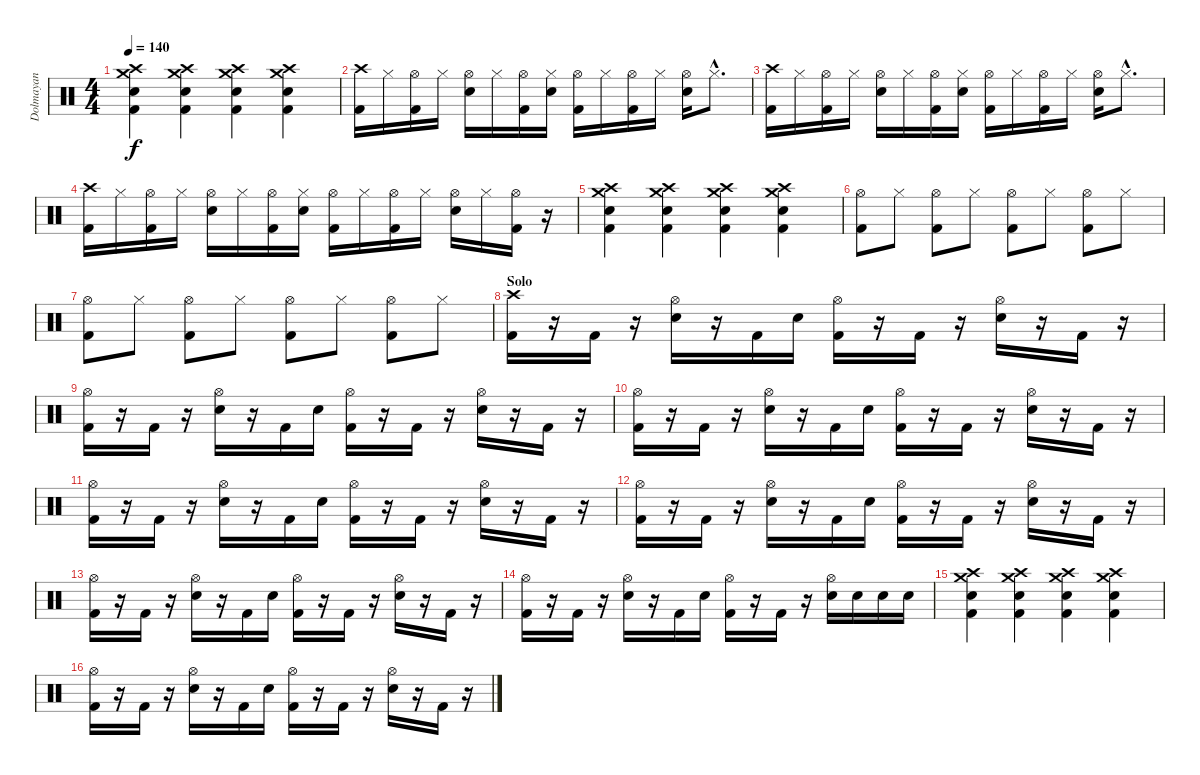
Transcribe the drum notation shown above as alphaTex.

\track ("Dolmayan" "Dolmayan") {instrument percussion}
\staff {score}
\articulation defaults
\ts (4 4)
\tempo 140
\clef neutral
\ks c
("Crash high (hit)" "Crash medium (hit)" "Electric Snare (hit)" "Kick (hit) 2").4{dy f} ("Crash high (hit)" "Crash medium (hit)" "Electric Snare (hit)" "Kick (hit) 2").4 ("Crash high (hit)" "Crash medium (hit)" "Electric Snare (hit)" "Kick (hit) 2").4 ("Crash high (hit)" "Crash medium (hit)" "Electric Snare (hit)" "Kick (hit) 2").4 |
("Crash high (hit)" "Kick (hit) 2").16 "Hi-Hat (closed)".16 ("Hi-Hat (open)" "Kick (hit) 2").16 "Hi-Hat (closed)".16 ("Hi-Hat (open)" "Electric Snare (hit)").16 "Hi-Hat (closed)".16 ("Hi-Hat (open)" "Kick (hit) 2").16 ("Hi-Hat (closed)" "Electric Snare (hit)").16 ("Hi-Hat (open)" "Kick (hit) 2").16 "Hi-Hat (closed)".16 ("Hi-Hat (open)" "Kick (hit) 2").16 "Hi-Hat (closed)".16 ("Hi-Hat (open)" "Electric Snare (hit)").16 "Hi-Hat (closed)"{hac}.8{d} |
("Crash high (hit)" "Kick (hit) 2").16 "Hi-Hat (closed)".16 ("Hi-Hat (open)" "Kick (hit) 2").16 "Hi-Hat (closed)".16 ("Hi-Hat (open)" "Electric Snare (hit)").16 "Hi-Hat (closed)".16 ("Hi-Hat (open)" "Kick (hit) 2").16 ("Hi-Hat (closed)" "Electric Snare (hit)").16 ("Hi-Hat (open)" "Kick (hit) 2").16 "Hi-Hat (closed)".16 ("Hi-Hat (open)" "Kick (hit) 2").16 "Hi-Hat (closed)".16 ("Hi-Hat (open)" "Electric Snare (hit)").16 "Hi-Hat (closed)"{hac}.8{d} |
("Crash high (hit)" "Kick (hit) 2").16 "Hi-Hat (closed)".16 ("Hi-Hat (open)" "Kick (hit) 2").16 "Hi-Hat (closed)".16 ("Hi-Hat (open)" "Electric Snare (hit)").16 "Hi-Hat (closed)".16 ("Hi-Hat (open)" "Kick (hit) 2").16 ("Hi-Hat (closed)" "Electric Snare (hit)").16 ("Hi-Hat (open)" "Kick (hit) 2").16 "Hi-Hat (closed)".16 ("Hi-Hat (open)" "Kick (hit) 2").16 "Hi-Hat (closed)".16 ("Hi-Hat (open)" "Electric Snare (hit)").16 "Hi-Hat (closed)".16 ("Hi-Hat (open)" "Kick (hit) 2").16 r.16 |
("Crash high (hit)" "Crash medium (hit)" "Electric Snare (hit)" "Kick (hit) 2").4 ("Crash high (hit)" "Crash medium (hit)" "Electric Snare (hit)" "Kick (hit) 2").4 ("Crash high (hit)" "Crash medium (hit)" "Electric Snare (hit)" "Kick (hit) 2").4 ("Crash high (hit)" "Crash medium (hit)" "Electric Snare (hit)" "Kick (hit) 2").4 |
("Hi-Hat (open)" "Kick (hit) 2").8 "Hi-Hat (closed)".8 ("Hi-Hat (open)" "Kick (hit) 2").8 "Hi-Hat (closed)".8 ("Hi-Hat (open)" "Kick (hit) 2").8 "Hi-Hat (closed)".8 ("Hi-Hat (open)" "Kick (hit) 2").8 "Hi-Hat (closed)".8 |
("Hi-Hat (open)" "Kick (hit) 2").8 "Hi-Hat (closed)".8 ("Hi-Hat (open)" "Kick (hit) 2").8 "Hi-Hat (closed)".8 ("Hi-Hat (open)" "Kick (hit) 2").8 "Hi-Hat (closed)".8 ("Hi-Hat (open)" "Kick (hit) 2").8 "Hi-Hat (closed)".8 |
\section ("" "Solo")
("Crash high (hit)" "Kick (hit) 2").16 r.16 "Kick (hit) 2".16 r.16 ("Hi-Hat (open)" "Electric Snare (hit)").16 r.16 "Kick (hit) 2".16 "Electric Snare (hit)".16 ("Hi-Hat (open)" "Kick (hit) 2").16 r.16 "Kick (hit) 2".16 r.16 ("Hi-Hat (open)" "Electric Snare (hit)").16 r.16 "Kick (hit) 2".16 r.16 |
("Hi-Hat (open)" "Kick (hit) 2").16 r.16 "Kick (hit) 2".16 r.16 ("Hi-Hat (open)" "Electric Snare (hit)").16 r.16 "Kick (hit) 2".16 "Electric Snare (hit)".16 ("Hi-Hat (open)" "Kick (hit) 2").16 r.16 "Kick (hit) 2".16 r.16 ("Hi-Hat (open)" "Electric Snare (hit)").16 r.16 "Kick (hit) 2".16 r.16 |
("Hi-Hat (open)" "Kick (hit) 2").16 r.16 "Kick (hit) 2".16 r.16 ("Hi-Hat (open)" "Electric Snare (hit)").16 r.16 "Kick (hit) 2".16 "Electric Snare (hit)".16 ("Hi-Hat (open)" "Kick (hit) 2").16 r.16 "Kick (hit) 2".16 r.16 ("Hi-Hat (open)" "Electric Snare (hit)").16 r.16 "Kick (hit) 2".16 r.16 |
("Hi-Hat (open)" "Kick (hit) 2").16 r.16 "Kick (hit) 2".16 r.16 ("Hi-Hat (open)" "Electric Snare (hit)").16 r.16 "Kick (hit) 2".16 "Electric Snare (hit)".16 ("Hi-Hat (open)" "Kick (hit) 2").16 r.16 "Kick (hit) 2".16 r.16 ("Hi-Hat (open)" "Electric Snare (hit)").16 r.16 "Kick (hit) 2".16 r.16 |
("Hi-Hat (open)" "Kick (hit) 2").16 r.16 "Kick (hit) 2".16 r.16 ("Hi-Hat (open)" "Electric Snare (hit)").16 r.16 "Kick (hit) 2".16 "Electric Snare (hit)".16 ("Hi-Hat (open)" "Kick (hit) 2").16 r.16 "Kick (hit) 2".16 r.16 ("Hi-Hat (open)" "Electric Snare (hit)").16 r.16 "Kick (hit) 2".16 r.16 |
("Hi-Hat (open)" "Kick (hit) 2").16 r.16 "Kick (hit) 2".16 r.16 ("Hi-Hat (open)" "Electric Snare (hit)").16 r.16 "Kick (hit) 2".16 "Electric Snare (hit)".16 ("Hi-Hat (open)" "Kick (hit) 2").16 r.16 "Kick (hit) 2".16 r.16 ("Hi-Hat (open)" "Electric Snare (hit)").16 r.16 "Kick (hit) 2".16 r.16 |
("Hi-Hat (open)" "Kick (hit) 2").16 r.16 "Kick (hit) 2".16 r.16 ("Hi-Hat (open)" "Electric Snare (hit)").16 r.16 "Kick (hit) 2".16 "Electric Snare (hit)".16 ("Hi-Hat (open)" "Kick (hit) 2").16 r.16 "Kick (hit) 2".16 r.16 ("Hi-Hat (open)" "Electric Snare (hit)").16 "Electric Snare (hit)".16 "Electric Snare (hit)".16 "Electric Snare (hit)".16 |
("Crash high (hit)" "Crash medium (hit)" "Electric Snare (hit)" "Kick (hit) 2").4 ("Crash high (hit)" "Crash medium (hit)" "Electric Snare (hit)" "Kick (hit) 2").4 ("Crash high (hit)" "Crash medium (hit)" "Electric Snare (hit)" "Kick (hit) 2").4 ("Crash high (hit)" "Crash medium (hit)" "Electric Snare (hit)" "Kick (hit) 2").4 |
("Hi-Hat (open)" "Kick (hit) 2").16 r.16 "Kick (hit) 2".16 r.16 ("Hi-Hat (open)" "Electric Snare (hit)").16 r.16 "Kick (hit) 2".16 "Electric Snare (hit)".16 ("Hi-Hat (open)" "Kick (hit) 2").16 r.16 "Kick (hit) 2".16 r.16 ("Hi-Hat (open)" "Electric Snare (hit)").16 r.16 "Kick (hit) 2".16 r.16
